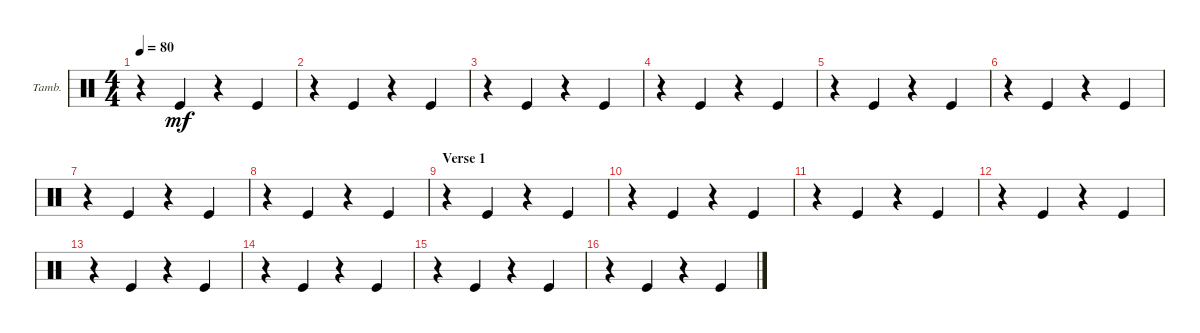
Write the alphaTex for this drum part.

\bracketExtendMode groupsimilarinstruments
\firstSystemTrackNameOrientation horizontal
\otherSystemsTrackNameOrientation horizontal
\chordDiagramsInScore
\track ("Tambourine" "Tamb.") {instrument percussion}
\staff {score}
\articulation defaults
\ts (4 4)
\tempo 80
\clef neutral
\ks c
r.4{dy mf} "Kick (hit)".4 r.4 "Kick (hit)".4 |
r.4 "Kick (hit)".4 r.4 "Kick (hit)".4 |
r.4 "Kick (hit)".4 r.4 "Kick (hit)".4 |
r.4 "Kick (hit)".4 r.4 "Kick (hit)".4 |
r.4 "Kick (hit)".4 r.4 "Kick (hit)".4 |
r.4 "Kick (hit)".4 r.4 "Kick (hit)".4 |
r.4 "Kick (hit)".4 r.4 "Kick (hit)".4 |
r.4 "Kick (hit)".4 r.4 "Kick (hit)".4 |
\section ("" "Verse 1")
r.4 "Kick (hit)".4 r.4 "Kick (hit)".4 |
r.4 "Kick (hit)".4 r.4 "Kick (hit)".4 |
r.4 "Kick (hit)".4 r.4 "Kick (hit)".4 |
r.4 "Kick (hit)".4 r.4 "Kick (hit)".4 |
r.4 "Kick (hit)".4 r.4 "Kick (hit)".4 |
r.4 "Kick (hit)".4 r.4 "Kick (hit)".4 |
r.4 "Kick (hit)".4 r.4 "Kick (hit)".4 |
r.4 "Kick (hit)".4 r.4 "Kick (hit)".4
